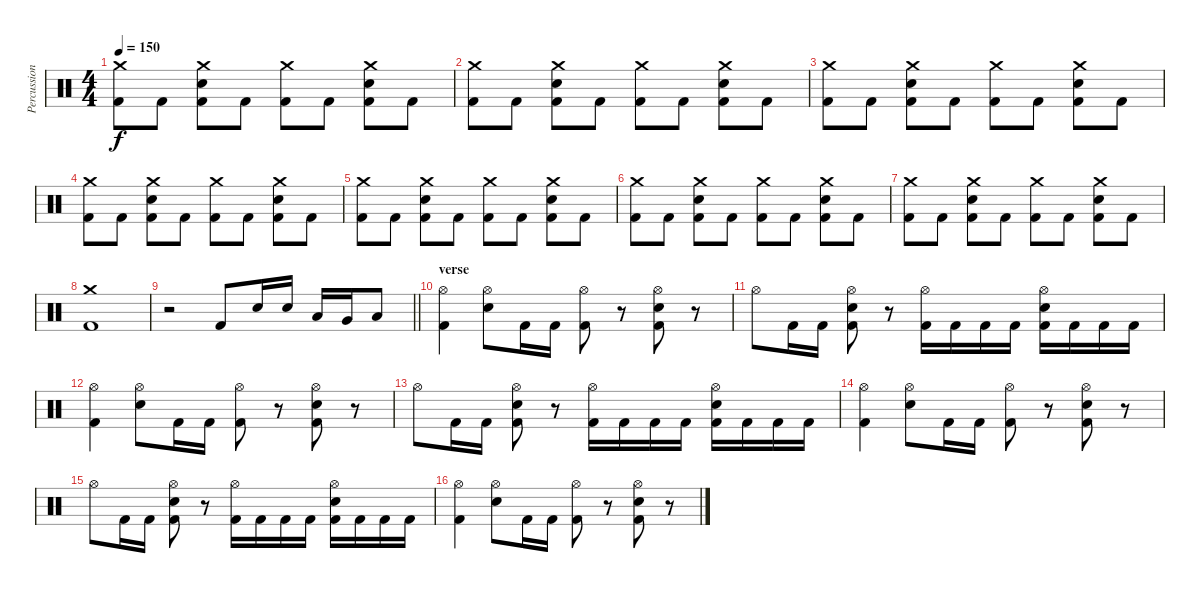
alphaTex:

\track ("Percussion" "Percussion") {instrument percussion}
\staff {score}
\articulation defaults
\ts (4 4)
\tempo 150
\clef neutral
\ks c
("Crash medium (hit)" "Kick (hit) 2").8{dy f} "Kick (hit) 2".8 ("Crash medium (hit)" "Snare (hit) 2" "Kick (hit) 2").8 "Kick (hit) 2".8 ("Crash medium (hit)" "Kick (hit) 2").8 "Kick (hit) 2".8 ("Crash medium (hit)" "Snare (hit) 2" "Kick (hit) 2").8 "Kick (hit) 2".8 |
("Crash medium (hit)" "Kick (hit) 2").8 "Kick (hit) 2".8 ("Crash medium (hit)" "Snare (hit) 2" "Kick (hit) 2").8 "Kick (hit) 2".8 ("Crash medium (hit)" "Kick (hit) 2").8 "Kick (hit) 2".8 ("Crash medium (hit)" "Snare (hit) 2" "Kick (hit) 2").8 "Kick (hit) 2".8 |
("Crash medium (hit)" "Kick (hit) 2").8 "Kick (hit) 2".8 ("Crash medium (hit)" "Snare (hit) 2" "Kick (hit) 2").8 "Kick (hit) 2".8 ("Crash medium (hit)" "Kick (hit) 2").8 "Kick (hit) 2".8 ("Crash medium (hit)" "Snare (hit) 2" "Kick (hit) 2").8 "Kick (hit) 2".8 |
("Crash medium (hit)" "Kick (hit) 2").8 "Kick (hit) 2".8 ("Crash medium (hit)" "Snare (hit) 2" "Kick (hit) 2").8 "Kick (hit) 2".8 ("Crash medium (hit)" "Kick (hit) 2").8 "Kick (hit) 2".8 ("Crash medium (hit)" "Snare (hit) 2" "Kick (hit) 2").8 "Kick (hit) 2".8 |
("Crash medium (hit)" "Kick (hit) 2").8 "Kick (hit) 2".8 ("Crash medium (hit)" "Snare (hit) 2" "Kick (hit) 2").8 "Kick (hit) 2".8 ("Crash medium (hit)" "Kick (hit) 2").8 "Kick (hit) 2".8 ("Crash medium (hit)" "Snare (hit) 2" "Kick (hit) 2").8 "Kick (hit) 2".8 |
("Crash medium (hit)" "Kick (hit) 2").8 "Kick (hit) 2".8 ("Crash medium (hit)" "Snare (hit) 2" "Kick (hit) 2").8 "Kick (hit) 2".8 ("Crash medium (hit)" "Kick (hit) 2").8 "Kick (hit) 2".8 ("Crash medium (hit)" "Snare (hit) 2" "Kick (hit) 2").8 "Kick (hit) 2".8 |
("Crash medium (hit)" "Kick (hit) 2").8 "Kick (hit) 2".8 ("Crash medium (hit)" "Snare (hit) 2" "Kick (hit) 2").8 "Kick (hit) 2".8 ("Crash medium (hit)" "Kick (hit) 2").8 "Kick (hit) 2".8 ("Crash medium (hit)" "Snare (hit) 2" "Kick (hit) 2").8 "Kick (hit) 2".8 |
("Crash medium (hit)" "Kick (hit) 2").1 |
\barLineRight lightlight
r.2 "Kick (hit) 2".8 "Snare (hit) 2".16 "Snare (hit) 2".16 "Low Tom (hit)".16 "Very Low Tom (hit)".16 "Low Floor Tom (hit)".8 |
\section ("" "verse")
("Hi-Hat (open)" "Kick (hit) 2").4 ("Hi-Hat (open)" "Snare (hit) 2").8 "Kick (hit) 2".16 "Kick (hit) 2".16 ("Hi-Hat (open)" "Kick (hit) 2").8 r.8 ("Hi-Hat (open)" "Snare (hit) 2" "Kick (hit) 2").8 r.8 |
"Hi-Hat (open)".8 "Kick (hit) 2".16 "Kick (hit) 2".16 ("Hi-Hat (open)" "Snare (hit) 2" "Kick (hit) 2").8 r.8 ("Hi-Hat (open)" "Kick (hit) 2").16 "Kick (hit) 2".16 "Kick (hit) 2".16 "Kick (hit) 2".16 ("Hi-Hat (open)" "Snare (hit) 2" "Kick (hit) 2").16 "Kick (hit) 2".16 "Kick (hit) 2".16 "Kick (hit) 2".16 |
("Hi-Hat (open)" "Kick (hit) 2").4 ("Hi-Hat (open)" "Snare (hit) 2").8 "Kick (hit) 2".16 "Kick (hit) 2".16 ("Hi-Hat (open)" "Kick (hit) 2").8 r.8 ("Hi-Hat (open)" "Snare (hit) 2" "Kick (hit) 2").8 r.8 |
"Hi-Hat (open)".8 "Kick (hit) 2".16 "Kick (hit) 2".16 ("Hi-Hat (open)" "Snare (hit) 2" "Kick (hit) 2").8 r.8 ("Hi-Hat (open)" "Kick (hit) 2").16 "Kick (hit) 2".16 "Kick (hit) 2".16 "Kick (hit) 2".16 ("Hi-Hat (open)" "Snare (hit) 2" "Kick (hit) 2").16 "Kick (hit) 2".16 "Kick (hit) 2".16 "Kick (hit) 2".16 |
("Hi-Hat (open)" "Kick (hit) 2").4 ("Hi-Hat (open)" "Snare (hit) 2").8 "Kick (hit) 2".16 "Kick (hit) 2".16 ("Hi-Hat (open)" "Kick (hit) 2").8 r.8 ("Hi-Hat (open)" "Snare (hit) 2" "Kick (hit) 2").8 r.8 |
"Hi-Hat (open)".8 "Kick (hit) 2".16 "Kick (hit) 2".16 ("Hi-Hat (open)" "Snare (hit) 2" "Kick (hit) 2").8 r.8 ("Hi-Hat (open)" "Kick (hit) 2").16 "Kick (hit) 2".16 "Kick (hit) 2".16 "Kick (hit) 2".16 ("Hi-Hat (open)" "Snare (hit) 2" "Kick (hit) 2").16 "Kick (hit) 2".16 "Kick (hit) 2".16 "Kick (hit) 2".16 |
("Hi-Hat (open)" "Kick (hit) 2").4 ("Hi-Hat (open)" "Snare (hit) 2").8 "Kick (hit) 2".16 "Kick (hit) 2".16 ("Hi-Hat (open)" "Kick (hit) 2").8 r.8 ("Hi-Hat (open)" "Snare (hit) 2" "Kick (hit) 2").8 r.8
